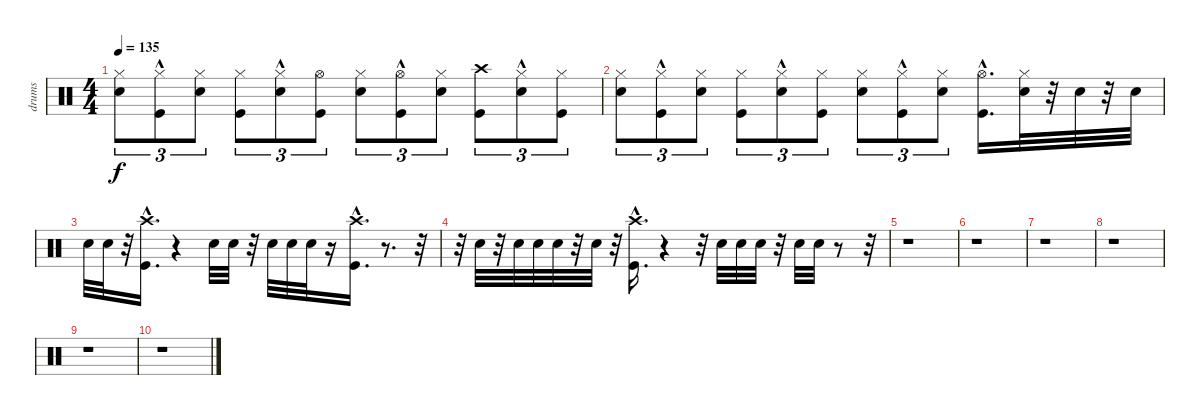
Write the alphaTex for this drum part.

\track ("drums" "drums") {instrument percussion}
\staff {score}
\articulation defaults
\ts (4 4)
\tempo 135
\clef neutral
\ks c
("Hi-Hat (closed)" "Snare (hit) 2").8{tu (3 2) dy f} ("Hi-Hat (closed)" "Kick (hit)"{hac}).8{tu (3 2)} ("Snare (hit) 2" "Hi-Hat (closed)").8{tu (3 2)} ("Hi-Hat (closed)" "Kick (hit)").8{tu (3 2)} ("Hi-Hat (closed)" "Snare (hit) 2"{hac}).8{tu (3 2)} ("Hi-Hat (open)" "Kick (hit)").8{tu (3 2)} ("Hi-Hat (closed)" "Snare (hit) 2").8{tu (3 2)} ("Hi-Hat (open)" "Kick (hit)"{hac}).8{tu (3 2)} ("Hi-Hat (closed)" "Snare (hit) 2").8{tu (3 2)} ("Kick (hit)" "Crash high (hit)").8{tu (3 2)} ("Hi-Hat (closed)" "Snare (hit) 2"{hac}).8{tu (3 2)} ("Hi-Hat (closed)" "Kick (hit)").8{tu (3 2)} |
("Snare (hit) 2" "Hi-Hat (closed)").8{tu (3 2)} ("Hi-Hat (closed)" "Kick (hit)"{hac}).8{tu (3 2)} ("Hi-Hat (closed)" "Snare (hit) 2").8{tu (3 2)} ("Kick (hit)" "Hi-Hat (closed)").8{tu (3 2)} ("Hi-Hat (closed)" "Snare (hit) 2"{hac}).8{tu (3 2)} ("Hi-Hat (closed)" "Kick (hit)").8{tu (3 2)} ("Snare (hit) 2" "Hi-Hat (closed)").8{tu (3 2)} ("Hi-Hat (closed)" "Kick (hit)"{hac}).8{tu (3 2)} ("Hi-Hat (closed)" "Snare (hit) 2").8{tu (3 2)} ("Hi-Hat (open)" "Kick (hit)"{hac}).16{d} ("Hi-Hat (closed)" "Snare (hit) 2").32 r.32 "Snare (hit) 2".32 r.32 "Snare (hit) 2".32 |
"Snare (hit) 2".32 "Snare (hit) 2".32 r.32 ("Crash high (hit)"{hac} "Kick (hit)"{hac}).16{d} r.4 "Snare (hit) 2".32 "Snare (hit) 2".32 r.32 "Snare (hit) 2".32 "Snare (hit) 2".32 "Snare (hit) 2".32 r.16 ("Kick (hit)"{hac} "Crash high (hit)"{hac}).16{d} r.8{d} r.32 |
r.32 "Snare (hit) 2".32 r.32 "Snare (hit) 2".32 "Snare (hit) 2".32 "Snare (hit) 2".32 r.32 "Snare (hit) 2".32 r.32 ("Kick (hit)"{hac} "Crash high (hit)"{hac}).16{d} r.4 r.32 "Snare (hit) 2".32 "Snare (hit) 2".32 "Snare (hit) 2".32 r.32 "Snare (hit) 2".32 "Snare (hit) 2".32 r.8 r.32 |
r.1 |
r.1 |
r.1 |
r.1 |
r.1 |
r.1
